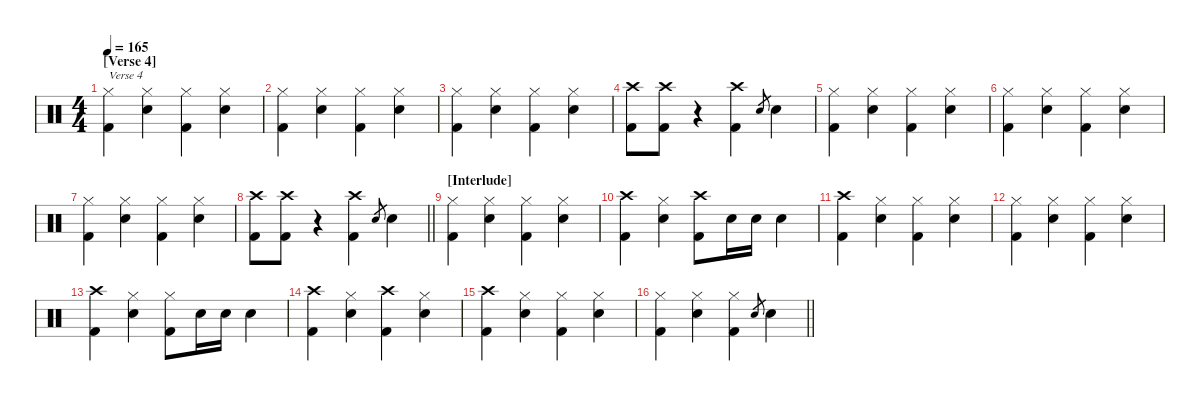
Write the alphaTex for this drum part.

\defaultSystemsLayout 4
\hideDynamics
\bracketExtendMode nobrackets
\singleTrackTrackNamePolicy hidden
\multiTrackTrackNamePolicy hidden
\firstSystemTrackNameMode fullname
\firstSystemTrackNameOrientation horizontal
\otherSystemsTrackNameOrientation horizontal
\track ("drums" "drm.") {instrument percussion}
\staff {score}
\articulation defaults
\ts (4 4)
\section ("" "[Verse 4]")
\tempo 165
\clef neutral
\ks c
("Hi-Hat (closed)" "Kick (hit) 2").4{txt "Verse 4" dy f beam Down} ("Hi-Hat (closed)" "Snare (hit) 2").4{beam Down} ("Hi-Hat (closed)" "Kick (hit) 2").4{beam Down} ("Hi-Hat (closed)" "Snare (hit) 2").4{beam Down} |
("Hi-Hat (closed)" "Kick (hit) 2").4{beam Down} ("Hi-Hat (closed)" "Snare (hit) 2").4{beam Down} ("Hi-Hat (closed)" "Kick (hit) 2").4{beam Down} ("Hi-Hat (closed)" "Snare (hit) 2").4{beam Down} |
("Hi-Hat (closed)" "Kick (hit) 2").4{beam Down} ("Hi-Hat (closed)" "Snare (hit) 2").4{beam Down} ("Hi-Hat (closed)" "Kick (hit) 2").4{beam Down} ("Hi-Hat (closed)" "Snare (hit) 2").4{beam Down} |
("Crash high (hit)" "Kick (hit) 2").8{dy fff beam Down} ("Crash high (hit)" "Kick (hit) 2").8{beam Down} r.4{beam Down} ("Crash high (hit)" "Kick (hit) 2").4{beam Down} "Snare (hit) 2".8{gr dy mf beam Up} "Snare (hit) 2".4{dy f beam Down} |
("Hi-Hat (closed)" "Kick (hit) 2").4{beam Down} ("Hi-Hat (closed)" "Snare (hit) 2").4{beam Down} ("Hi-Hat (closed)" "Kick (hit) 2").4{beam Down} ("Hi-Hat (closed)" "Snare (hit) 2").4{beam Down} |
("Hi-Hat (closed)" "Kick (hit) 2").4{beam Down} ("Hi-Hat (closed)" "Snare (hit) 2").4{beam Down} ("Hi-Hat (closed)" "Kick (hit) 2").4{beam Down} ("Hi-Hat (closed)" "Snare (hit) 2").4{beam Down} |
("Hi-Hat (closed)" "Kick (hit) 2").4{beam Down} ("Hi-Hat (closed)" "Snare (hit) 2").4{beam Down} ("Hi-Hat (closed)" "Kick (hit) 2").4{beam Down} ("Hi-Hat (closed)" "Snare (hit) 2").4{beam Down} |
\barLineRight lightlight
("Crash high (hit)" "Kick (hit) 2").8{dy fff beam Down} ("Crash high (hit)" "Kick (hit) 2").8{beam Down} r.4{beam Down} ("Crash high (hit)" "Kick (hit) 2").4{beam Down} "Snare (hit) 2".8{gr dy mf beam Up} "Snare (hit) 2".4{dy f beam Down} |
\section ("" "[Interlude]")
("Hi-Hat (closed)" "Kick (hit) 2").4{beam Down} ("Hi-Hat (closed)" "Snare (hit) 2").4{beam Down} ("Hi-Hat (closed)" "Kick (hit) 2").4{beam Down} ("Hi-Hat (closed)" "Snare (hit) 2").4{beam Down} |
("Crash high (hit)" "Kick (hit) 2").4{dy fff beam Down} ("Hi-Hat (closed)" "Snare (hit) 2").4{dy f beam Down} ("Crash high (hit)" "Kick (hit) 2").8{dy fff beam Down} "Snare (hit) 2".16{dy f beam Down} "Snare (hit) 2".16{dy mf beam Down} "Snare (hit) 2".4{dy f beam Down} |
("Crash high (hit)" "Kick (hit) 2").4{dy fff beam Down} ("Hi-Hat (closed)" "Snare (hit) 2").4{dy f beam Down} ("Hi-Hat (closed)" "Kick (hit) 2").4{beam Down} ("Hi-Hat (closed)" "Snare (hit) 2").4{beam Down} |
("Hi-Hat (closed)" "Kick (hit) 2").4{beam Down} ("Hi-Hat (closed)" "Snare (hit) 2").4{beam Down} ("Hi-Hat (closed)" "Kick (hit) 2").4{beam Down} ("Hi-Hat (closed)" "Snare (hit) 2").4{beam Down} |
("Crash high (hit)" "Kick (hit) 2").4{dy fff beam Down} ("Hi-Hat (closed)" "Snare (hit) 2").4{dy f beam Down} ("Hi-Hat (closed)" "Kick (hit) 2").8{beam Down} "Snare (hit) 2".16{beam Down} "Snare (hit) 2".16{dy mf beam Down} "Snare (hit) 2".4{dy f beam Down} |
("Crash high (hit)" "Kick (hit) 2").4{dy fff beam Down} ("Hi-Hat (closed)" "Snare (hit) 2").4{dy f beam Down} ("Crash high (hit)" "Kick (hit) 2").4{dy fff beam Down} ("Hi-Hat (closed)" "Snare (hit) 2").4{dy f beam Down} |
("Crash high (hit)" "Kick (hit) 2").4{dy fff beam Down} ("Hi-Hat (closed)" "Snare (hit) 2").4{dy f beam Down} ("Hi-Hat (closed)" "Kick (hit) 2").4{beam Down} ("Hi-Hat (closed)" "Snare (hit) 2").4{beam Down} |
\barLineRight lightlight
("Hi-Hat (closed)" "Kick (hit) 2").4{beam Down} ("Hi-Hat (closed)" "Snare (hit) 2").4{beam Down} ("Hi-Hat (closed)" "Kick (hit) 2").4{beam Down} "Snare (hit) 2".8{gr dy mf beam Up} "Snare (hit) 2".4{dy f beam Down}
